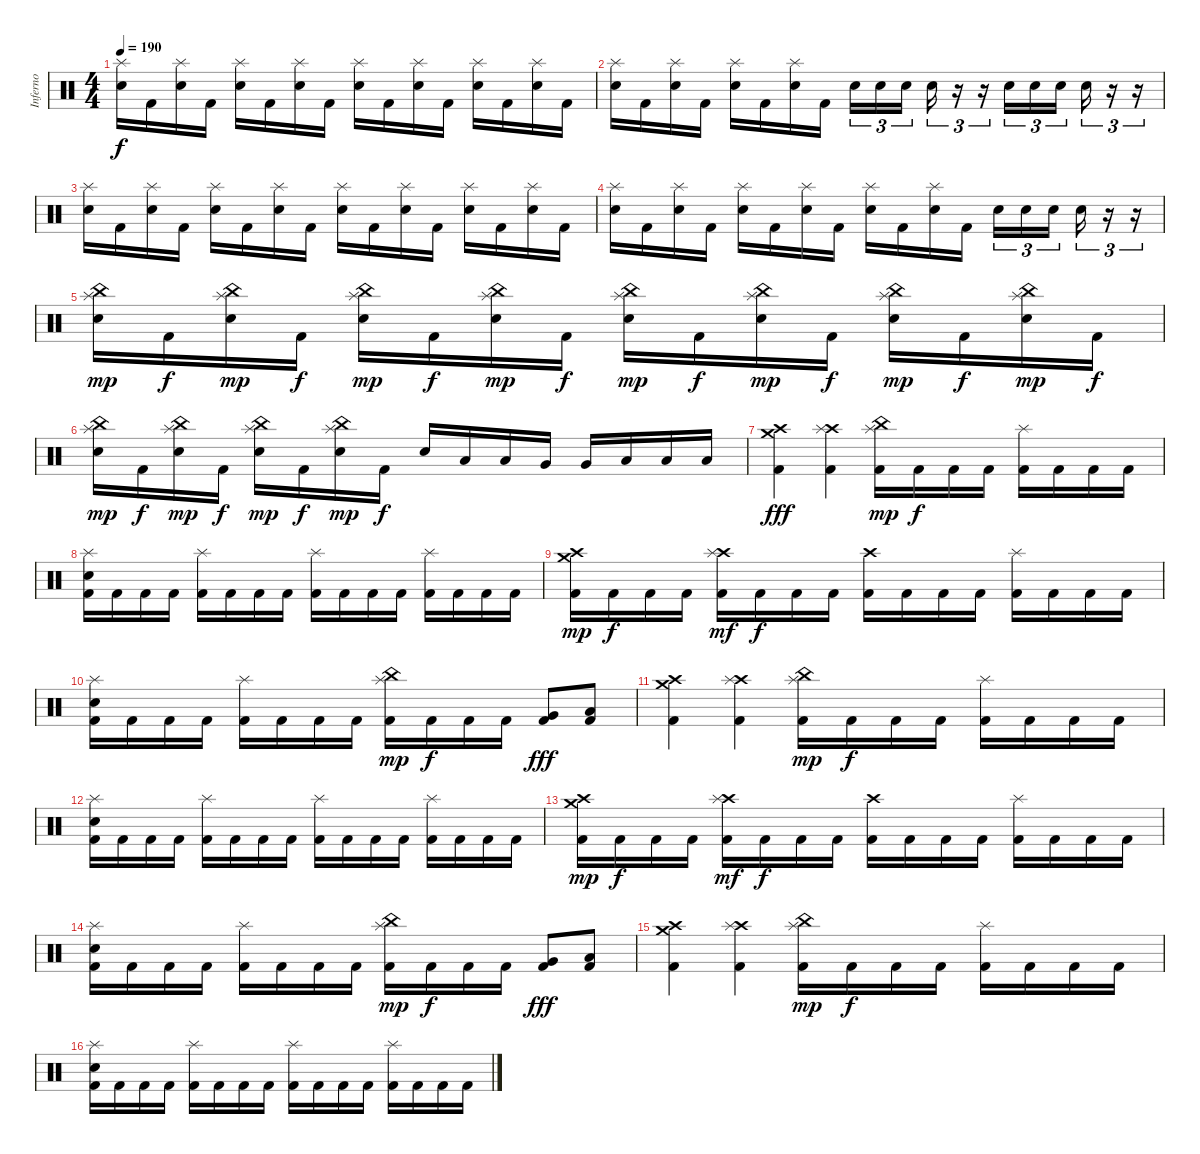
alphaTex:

\track ("Inferno" "Inferno") {instrument percussion}
\staff {score}
\articulation defaults
\ts (4 4)
\tempo 190
\clef neutral
\ks c
("Splash (hit)" "Snare (hit) 2").16{dy f} "Kick (hit) 2".16 ("Splash (hit)" "Snare (hit) 2").16 "Kick (hit) 2".16 ("Splash (hit)" "Snare (hit) 2").16 "Kick (hit) 2".16 ("Splash (hit)" "Snare (hit) 2").16 "Kick (hit) 2".16 ("Splash (hit)" "Snare (hit) 2").16 "Kick (hit) 2".16 ("Splash (hit)" "Snare (hit) 2").16 "Kick (hit) 2".16 ("Splash (hit)" "Snare (hit) 2").16 "Kick (hit) 2".16 ("Splash (hit)" "Snare (hit) 2").16 "Kick (hit) 2".16 |
("Splash (hit)" "Snare (hit) 2").16 "Kick (hit) 2".16 ("Splash (hit)" "Snare (hit) 2").16 "Kick (hit) 2".16 ("Splash (hit)" "Snare (hit) 2").16 "Kick (hit) 2".16 ("Splash (hit)" "Snare (hit) 2").16 "Kick (hit) 2".16 "Snare (hit) 2".16{tu (3 2)} "Snare (hit) 2".16{tu (3 2)} "Snare (hit) 2".16{tu (3 2)} "Snare (hit) 2".16{tu (3 2)} r.16{tu (3 2)} r.16{tu (3 2)} "Snare (hit) 2".16{tu (3 2)} "Snare (hit) 2".16{tu (3 2)} "Snare (hit) 2".16{tu (3 2)} "Snare (hit) 2".16{tu (3 2)} r.16{tu (3 2)} r.16{tu (3 2)} |
("Splash (hit)" "Snare (hit) 2").16 "Kick (hit) 2".16 ("Splash (hit)" "Snare (hit) 2").16 "Kick (hit) 2".16 ("Splash (hit)" "Snare (hit) 2").16 "Kick (hit) 2".16 ("Splash (hit)" "Snare (hit) 2").16 "Kick (hit) 2".16 ("Splash (hit)" "Snare (hit) 2").16 "Kick (hit) 2".16 ("Splash (hit)" "Snare (hit) 2").16 "Kick (hit) 2".16 ("Splash (hit)" "Snare (hit) 2").16 "Kick (hit) 2".16 ("Splash (hit)" "Snare (hit) 2").16 "Kick (hit) 2".16 |
("Splash (hit)" "Snare (hit) 2").16 "Kick (hit) 2".16 ("Splash (hit)" "Snare (hit) 2").16 "Kick (hit) 2".16 ("Splash (hit)" "Snare (hit) 2").16 "Kick (hit) 2".16 ("Splash (hit)" "Snare (hit) 2").16 "Kick (hit) 2".16 ("Splash (hit)" "Snare (hit) 2").16 "Kick (hit) 2".16 ("Splash (hit)" "Snare (hit) 2").16 "Kick (hit) 2".16 "Snare (hit) 2".16{tu (3 2)} "Snare (hit) 2".16{tu (3 2)} "Snare (hit) 2".16{tu (3 2)} "Snare (hit) 2".16{tu (3 2)} r.16{tu (3 2)} r.16{tu (3 2)} |
("Splash (hit)" "China (hit)" "Snare (hit) 2").16{dy mp} "Kick (hit) 2".16{dy f} ("Splash (hit)" "China (hit)" "Snare (hit) 2").16{dy mp} "Kick (hit) 2".16{dy f} ("Splash (hit)" "China (hit)" "Snare (hit) 2").16{dy mp} "Kick (hit) 2".16{dy f} ("Splash (hit)" "China (hit)" "Snare (hit) 2").16{dy mp} "Kick (hit) 2".16{dy f} ("Splash (hit)" "China (hit)" "Snare (hit) 2").16{dy mp} "Kick (hit) 2".16{dy f} ("Splash (hit)" "China (hit)" "Snare (hit) 2").16{dy mp} "Kick (hit) 2".16{dy f} ("Splash (hit)" "China (hit)" "Snare (hit) 2").16{dy mp} "Kick (hit) 2".16{dy f} ("Splash (hit)" "China (hit)" "Snare (hit) 2").16{dy mp} "Kick (hit) 2".16{dy f} |
("Splash (hit)" "China (hit)" "Snare (hit) 2").16{dy mp} "Kick (hit) 2".16{dy f} ("Splash (hit)" "China (hit)" "Snare (hit) 2").16{dy mp} "Kick (hit) 2".16{dy f} ("Splash (hit)" "China (hit)" "Snare (hit) 2").16{dy mp} "Kick (hit) 2".16{dy f} ("Splash (hit)" "China (hit)" "Snare (hit) 2").16{dy mp} "Kick (hit) 2".16{dy f} "Snare (hit) 2".16 "Low Tom (hit)".16 "Low Tom (hit)".16 "Very Low Tom (hit)".16 "Very Low Tom (hit)".16 "Low Floor Tom (hit)".16 "Low Floor Tom (hit)".16 "Low Floor Tom (hit)".16 |
("Crash high (hit)" "Crash medium (hit)" "Kick (hit) 2").4{dy fff} ("Crash high (hit)" "Splash (hit)" "Kick (hit) 2").4 ("Splash (hit)" "China (hit)" "Kick (hit) 2").16{dy mp} "Kick (hit) 2".16{dy f} "Kick (hit) 2".16 "Kick (hit) 2".16 ("Splash (hit)" "Kick (hit) 2").16 "Kick (hit) 2".16 "Kick (hit) 2".16 "Kick (hit) 2".16 |
("Splash (hit)" "Snare (hit) 2" "Kick (hit) 2").16 "Kick (hit) 2".16 "Kick (hit) 2".16 "Kick (hit) 2".16 ("Splash (hit)" "Kick (hit) 2").16 "Kick (hit) 2".16 "Kick (hit) 2".16 "Kick (hit) 2".16 ("Splash (hit)" "Kick (hit) 2").16 "Kick (hit) 2".16 "Kick (hit) 2".16 "Kick (hit) 2".16 ("Splash (hit)" "Kick (hit) 2").16 "Kick (hit) 2".16 "Kick (hit) 2".16 "Kick (hit) 2".16 |
("Crash high (hit)" "Crash medium (hit)" "Kick (hit) 2").16{dy mp} "Kick (hit) 2".16{dy f} "Kick (hit) 2".16 "Kick (hit) 2".16 ("Crash high (hit)" "Splash (hit)" "Kick (hit) 2").16{dy mf} "Kick (hit) 2".16{dy f} "Kick (hit) 2".16 "Kick (hit) 2".16 ("Crash high (hit)" "Kick (hit) 2").16 "Kick (hit) 2".16 "Kick (hit) 2".16 "Kick (hit) 2".16 ("Splash (hit)" "Kick (hit) 2").16 "Kick (hit) 2".16 "Kick (hit) 2".16 "Kick (hit) 2".16 |
("Splash (hit)" "Snare (hit) 2" "Kick (hit) 2").16 "Kick (hit) 2".16 "Kick (hit) 2".16 "Kick (hit) 2".16 ("Splash (hit)" "Kick (hit) 2").16 "Kick (hit) 2".16 "Kick (hit) 2".16 "Kick (hit) 2".16 ("Splash (hit)" "China (hit)" "Kick (hit) 2").16{dy mp} "Kick (hit) 2".16{dy f} "Kick (hit) 2".16 "Kick (hit) 2".16 ("Very Low Tom (hit)" "Kick (hit) 2").8{dy fff} ("Low Floor Tom (hit)" "Kick (hit) 2").8 |
("Crash high (hit)" "Crash medium (hit)" "Kick (hit) 2").4 ("Crash high (hit)" "Splash (hit)" "Kick (hit) 2").4 ("Splash (hit)" "China (hit)" "Kick (hit) 2").16{dy mp} "Kick (hit) 2".16{dy f} "Kick (hit) 2".16 "Kick (hit) 2".16 ("Splash (hit)" "Kick (hit) 2").16 "Kick (hit) 2".16 "Kick (hit) 2".16 "Kick (hit) 2".16 |
("Splash (hit)" "Snare (hit) 2" "Kick (hit) 2").16 "Kick (hit) 2".16 "Kick (hit) 2".16 "Kick (hit) 2".16 ("Splash (hit)" "Kick (hit) 2").16 "Kick (hit) 2".16 "Kick (hit) 2".16 "Kick (hit) 2".16 ("Splash (hit)" "Kick (hit) 2").16 "Kick (hit) 2".16 "Kick (hit) 2".16 "Kick (hit) 2".16 ("Splash (hit)" "Kick (hit) 2").16 "Kick (hit) 2".16 "Kick (hit) 2".16 "Kick (hit) 2".16 |
("Crash high (hit)" "Crash medium (hit)" "Kick (hit) 2").16{dy mp} "Kick (hit) 2".16{dy f} "Kick (hit) 2".16 "Kick (hit) 2".16 ("Crash high (hit)" "Splash (hit)" "Kick (hit) 2").16{dy mf} "Kick (hit) 2".16{dy f} "Kick (hit) 2".16 "Kick (hit) 2".16 ("Crash high (hit)" "Kick (hit) 2").16 "Kick (hit) 2".16 "Kick (hit) 2".16 "Kick (hit) 2".16 ("Splash (hit)" "Kick (hit) 2").16 "Kick (hit) 2".16 "Kick (hit) 2".16 "Kick (hit) 2".16 |
("Splash (hit)" "Snare (hit) 2" "Kick (hit) 2").16 "Kick (hit) 2".16 "Kick (hit) 2".16 "Kick (hit) 2".16 ("Splash (hit)" "Kick (hit) 2").16 "Kick (hit) 2".16 "Kick (hit) 2".16 "Kick (hit) 2".16 ("Splash (hit)" "China (hit)" "Kick (hit) 2").16{dy mp} "Kick (hit) 2".16{dy f} "Kick (hit) 2".16 "Kick (hit) 2".16 ("Very Low Tom (hit)" "Kick (hit) 2").8{dy fff} ("Low Floor Tom (hit)" "Kick (hit) 2").8 |
("Crash high (hit)" "Crash medium (hit)" "Kick (hit) 2").4 ("Crash high (hit)" "Splash (hit)" "Kick (hit) 2").4 ("Splash (hit)" "China (hit)" "Kick (hit) 2").16{dy mp} "Kick (hit) 2".16{dy f} "Kick (hit) 2".16 "Kick (hit) 2".16 ("Splash (hit)" "Kick (hit) 2").16 "Kick (hit) 2".16 "Kick (hit) 2".16 "Kick (hit) 2".16 |
("Splash (hit)" "Snare (hit) 2" "Kick (hit) 2").16 "Kick (hit) 2".16 "Kick (hit) 2".16 "Kick (hit) 2".16 ("Splash (hit)" "Kick (hit) 2").16 "Kick (hit) 2".16 "Kick (hit) 2".16 "Kick (hit) 2".16 ("Splash (hit)" "Kick (hit) 2").16 "Kick (hit) 2".16 "Kick (hit) 2".16 "Kick (hit) 2".16 ("Splash (hit)" "Kick (hit) 2").16 "Kick (hit) 2".16 "Kick (hit) 2".16 "Kick (hit) 2".16
